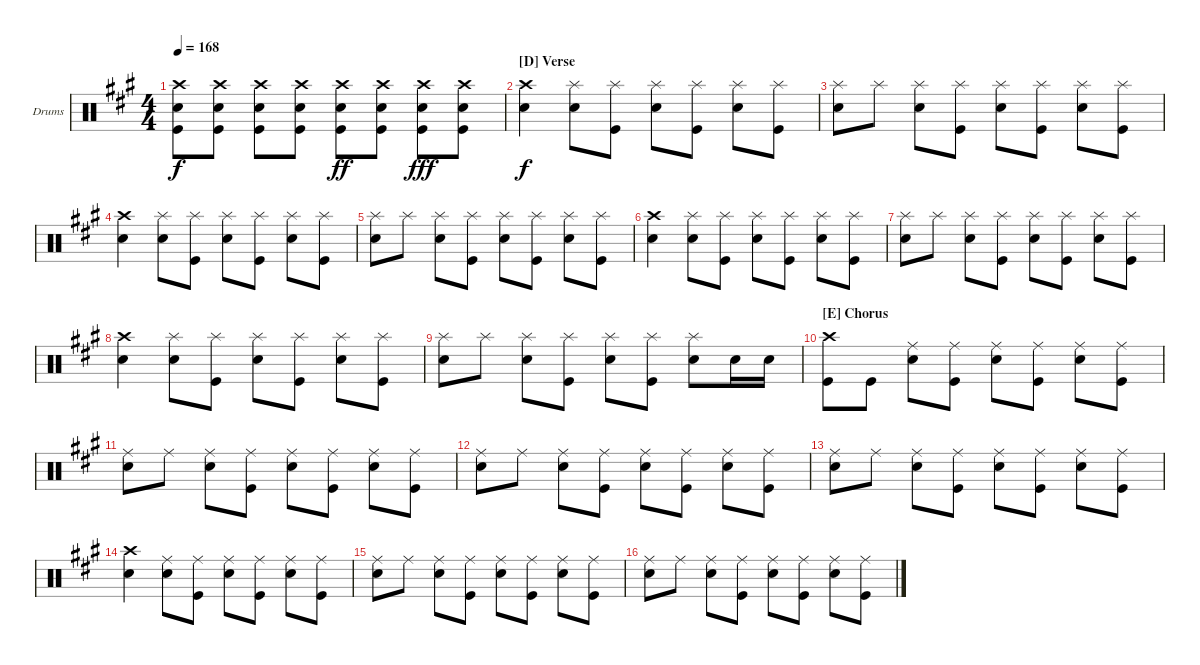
\defaultSystemsLayout 4
\bracketExtendMode groupsimilarinstruments
\firstSystemTrackNameOrientation horizontal
\otherSystemsTrackNameOrientation horizontal
\track ("Drumkit" "Drums") {instrument percussion}
\staff {score}
\articulation defaults
\ts (4 4)
\tempo 168
\clef neutral
\scale
1.05801
\ks a
("Crash high (hit)" "Snare (hit) 2" "Kick (hit)").8{dy f} ("Crash high (hit)" "Snare (hit) 2" "Kick (hit)").8 ("Crash high (hit)" "Snare (hit) 2" "Kick (hit)").8 ("Crash high (hit)" "Snare (hit) 2" "Kick (hit)").8 ("Crash high (hit)" "Snare (hit) 2" "Kick (hit)").8{dy ff} ("Crash high (hit)" "Snare (hit) 2" "Kick (hit)").8 ("Crash high (hit)" "Snare (hit) 2" "Kick (hit)").8{dy fff} ("Crash high (hit)" "Snare (hit) 2" "Kick (hit)").8 |
\section ("D" "Verse")
\scale
0.941992 ("Crash high (hit)" "Snare (hit) 2").4{dy f} ("Splash (hit)" "Snare (hit) 2").8 ("Splash (hit)" "Kick (hit)").8 ("Splash (hit)" "Snare (hit) 2").8 ("Splash (hit)" "Kick (hit)").8 ("Splash (hit)" "Snare (hit) 2").8 ("Splash (hit)" "Kick (hit)").8 |
\scale
1.05801 ("Splash (hit)" "Snare (hit) 2").8 "Splash (hit)".8 ("Splash (hit)" "Snare (hit) 2").8 ("Splash (hit)" "Kick (hit)").8 ("Splash (hit)" "Snare (hit) 2").8 ("Splash (hit)" "Kick (hit)").8 ("Splash (hit)" "Snare (hit) 2").8 ("Splash (hit)" "Kick (hit)").8 |
\scale
0.941992 ("Crash high (hit)" "Snare (hit) 2").4 ("Splash (hit)" "Snare (hit) 2").8 ("Splash (hit)" "Kick (hit)").8 ("Splash (hit)" "Snare (hit) 2").8 ("Splash (hit)" "Kick (hit)").8 ("Splash (hit)" "Snare (hit) 2").8 ("Splash (hit)" "Kick (hit)").8 |
\scale
1.05801 ("Splash (hit)" "Snare (hit) 2").8 "Splash (hit)".8 ("Splash (hit)" "Snare (hit) 2").8 ("Splash (hit)" "Kick (hit)").8 ("Splash (hit)" "Snare (hit) 2").8 ("Splash (hit)" "Kick (hit)").8 ("Splash (hit)" "Snare (hit) 2").8 ("Splash (hit)" "Kick (hit)").8 |
\scale
0.941992 ("Crash high (hit)" "Snare (hit) 2").4 ("Splash (hit)" "Snare (hit) 2").8 ("Splash (hit)" "Kick (hit)").8 ("Splash (hit)" "Snare (hit) 2").8 ("Splash (hit)" "Kick (hit)").8 ("Splash (hit)" "Snare (hit) 2").8 ("Splash (hit)" "Kick (hit)").8 |
\scale
1.05801 ("Splash (hit)" "Snare (hit) 2").8 "Splash (hit)".8 ("Splash (hit)" "Snare (hit) 2").8 ("Splash (hit)" "Kick (hit)").8 ("Splash (hit)" "Snare (hit) 2").8 ("Splash (hit)" "Kick (hit)").8 ("Splash (hit)" "Snare (hit) 2").8 ("Splash (hit)" "Kick (hit)").8 |
\scale
0.941992 ("Crash high (hit)" "Snare (hit) 2").4 ("Splash (hit)" "Snare (hit) 2").8 ("Splash (hit)" "Kick (hit)").8 ("Splash (hit)" "Snare (hit) 2").8 ("Splash (hit)" "Kick (hit)").8 ("Splash (hit)" "Snare (hit) 2").8 ("Splash (hit)" "Kick (hit)").8 |
\scale
1.05801 ("Splash (hit)" "Snare (hit) 2").8 "Splash (hit)".8 ("Splash (hit)" "Snare (hit) 2").8 ("Splash (hit)" "Kick (hit)").8 ("Splash (hit)" "Snare (hit) 2").8 ("Splash (hit)" "Kick (hit)").8 ("Splash (hit)" "Snare (hit) 2").8 "Snare (hit) 2".16 "Snare (hit) 2".16 |
\section ("E" "Chorus")
\scale
0.941992 ("Crash high (hit)" "Kick (hit)").8 "Kick (hit)".8 ("Ride (middle)" "Snare (hit) 2").8 ("Ride (middle)" "Kick (hit)").8 ("Ride (middle)" "Snare (hit) 2").8 ("Ride (middle)" "Kick (hit)").8 ("Ride (middle)" "Snare (hit) 2").8 ("Ride (middle)" "Kick (hit)").8 |
\scale
1.05801 ("Ride (middle)" "Snare (hit) 2").8 "Ride (middle)".8 ("Ride (middle)" "Snare (hit) 2").8 ("Ride (middle)" "Kick (hit)").8 ("Ride (middle)" "Snare (hit) 2").8 ("Ride (middle)" "Kick (hit)").8 ("Ride (middle)" "Snare (hit) 2").8 ("Ride (middle)" "Kick (hit)").8 |
\scale
0.941992 ("Ride (middle)" "Snare (hit) 2").8 "Ride (middle)".8 ("Ride (middle)" "Snare (hit) 2").8 ("Ride (middle)" "Kick (hit)").8 ("Ride (middle)" "Snare (hit) 2").8 ("Ride (middle)" "Kick (hit)").8 ("Ride (middle)" "Snare (hit) 2").8 ("Ride (middle)" "Kick (hit)").8 |
\scale
1.05801 ("Ride (middle)" "Snare (hit) 2").8 "Ride (middle)".8 ("Ride (middle)" "Snare (hit) 2").8 ("Ride (middle)" "Kick (hit)").8 ("Ride (middle)" "Snare (hit) 2").8 ("Ride (middle)" "Kick (hit)").8 ("Ride (middle)" "Snare (hit) 2").8 ("Ride (middle)" "Kick (hit)").8 |
\scale
0.941992 ("Crash high (hit)" "Snare (hit) 2").4 ("Ride (middle)" "Snare (hit) 2").8 ("Ride (middle)" "Kick (hit)").8 ("Ride (middle)" "Snare (hit) 2").8 ("Ride (middle)" "Kick (hit)").8 ("Ride (middle)" "Snare (hit) 2").8 ("Ride (middle)" "Kick (hit)").8 |
\scale
1.05801 ("Ride (middle)" "Snare (hit) 2").8 "Ride (middle)".8 ("Ride (middle)" "Snare (hit) 2").8 ("Ride (middle)" "Kick (hit)").8 ("Ride (middle)" "Snare (hit) 2").8 ("Ride (middle)" "Kick (hit)").8 ("Ride (middle)" "Snare (hit) 2").8 ("Ride (middle)" "Kick (hit)").8 |
\scale
0.941992 ("Ride (middle)" "Snare (hit) 2").8 "Ride (middle)".8 ("Ride (middle)" "Snare (hit) 2").8 ("Ride (middle)" "Kick (hit)").8 ("Ride (middle)" "Snare (hit) 2").8 ("Ride (middle)" "Kick (hit)").8 ("Ride (middle)" "Snare (hit) 2").8 ("Ride (middle)" "Kick (hit)").8
